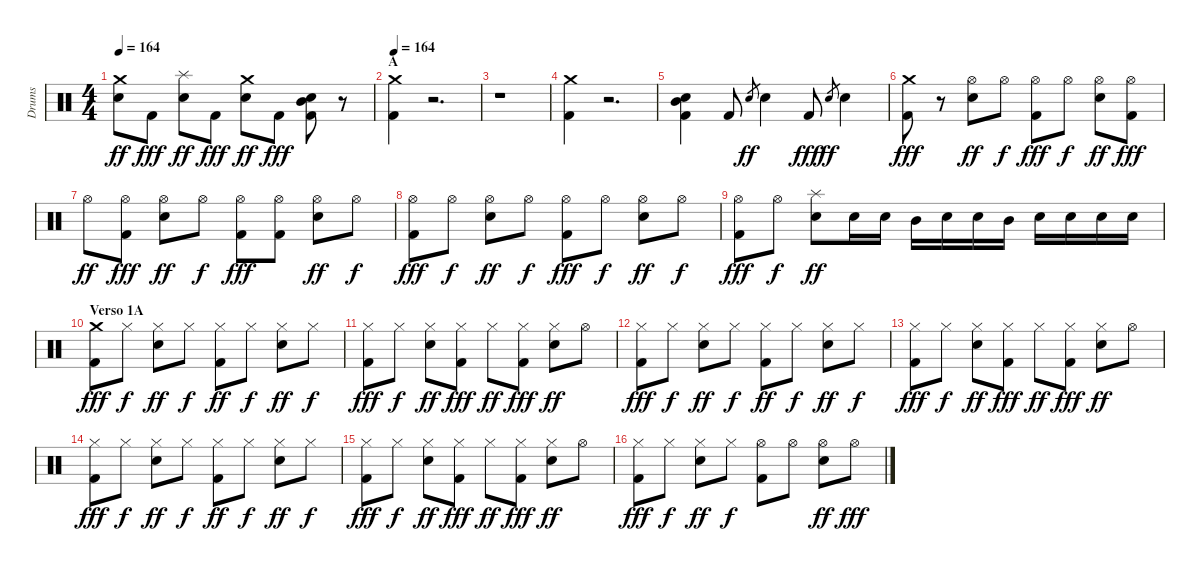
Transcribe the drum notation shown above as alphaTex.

\track ("Drums" "Drums") {instrument percussion}
\staff {score}
\articulation defaults
\ts (4 4)
\tempo 164
\clef neutral
\ks c
("Crash medium (hit)" "Snare (hit) 2").8{dy ff} "Kick (hit) 2".8{dy fff} ("Splash (hit)" "Snare (hit) 2").8{dy ff} "Kick (hit) 2".8{dy fff} ("Crash medium (hit)" "Snare (hit) 2").8{dy ff} "Kick (hit) 2".8{dy fff} ("Snare (hit) 2" "Mid Tom (hit)" "Kick (hit) 2").8 r.8 |
\section ("" "A")
\tempo 164
("Crash medium (hit)" "Kick (hit) 2").4 r.2{d} |
r.1 |
("Crash medium (hit)" "Kick (hit) 2").4 r.2{d} |
("Snare (hit) 2" "Mid Tom (hit)" "Kick (hit) 2").4 "Kick (hit) 2".8 "Snare (hit) 2".8{gr dy ff} "Snare (hit) 2".4 "Kick (hit) 2".8{dy fff} "Snare (hit) 2".8{gr dy ff} "Snare (hit) 2".4 |
("Crash medium (hit)" "Kick (hit) 2").8{dy fff} r.8 ("Hi-Hat (open)" "Snare (hit) 2").8{dy ff} "Hi-Hat (open)".8{dy f} ("Hi-Hat (open)" "Kick (hit) 2").8{dy fff} "Hi-Hat (open)".8{dy f} ("Hi-Hat (open)" "Snare (hit) 2").8{dy ff} ("Hi-Hat (open)" "Kick (hit) 2").8{dy fff} |
"Hi-Hat (open)".8{dy ff} ("Hi-Hat (open)" "Kick (hit) 2").8{dy fff} ("Hi-Hat (open)" "Snare (hit) 2").8{dy ff} "Hi-Hat (open)".8{dy f} ("Hi-Hat (open)" "Kick (hit) 2").8{dy fff} ("Hi-Hat (open)" "Kick (hit) 2").8 ("Hi-Hat (open)" "Snare (hit) 2").8{dy ff} "Hi-Hat (open)".8{dy f} |
("Hi-Hat (open)" "Kick (hit) 2").8{dy fff} "Hi-Hat (open)".8{dy f} ("Hi-Hat (open)" "Snare (hit) 2").8{dy ff} "Hi-Hat (open)".8{dy f} ("Hi-Hat (open)" "Kick (hit) 2").8{dy fff} "Hi-Hat (open)".8{dy f} ("Hi-Hat (open)" "Snare (hit) 2").8{dy ff} "Hi-Hat (open)".8{dy f} |
("Hi-Hat (open)" "Kick (hit) 2").8{dy fff} "Hi-Hat (open)".8{dy f} ("Splash (hit)" "Snare (hit) 2").8{dy ff} "Snare (hit) 2".16 "Snare (hit) 2".16 "Mid Tom (hit)".16 "Snare (hit) 2".16 "Snare (hit) 2".16 "Mid Tom (hit)".16 "Snare (hit) 2".16 "Snare (hit) 2".16 "Snare (hit) 2".16 "Snare (hit) 2".16 |
\section ("" "Verso 1A")
("Crash medium (hit)" "Kick (hit) 2").8{dy fff} "Hi-Hat (closed)".8{dy f} ("Hi-Hat (closed)" "Snare (hit) 2").8{dy ff} "Hi-Hat (closed)".8{dy f} ("Hi-Hat (closed)" "Kick (hit) 2").8{dy ff} "Hi-Hat (closed)".8{dy f} ("Hi-Hat (closed)" "Snare (hit) 2").8{dy ff} "Hi-Hat (closed)".8{dy f} |
("Hi-Hat (closed)" "Kick (hit) 2").8{dy fff} "Hi-Hat (closed)".8{dy f} ("Hi-Hat (closed)" "Snare (hit) 2").8{dy ff} ("Hi-Hat (closed)" "Kick (hit) 2").8{dy fff} "Hi-Hat (closed)".8{dy ff} ("Hi-Hat (closed)" "Kick (hit) 2").8{dy fff} ("Hi-Hat (closed)" "Snare (hit) 2").8{dy ff} "Hi-Hat (open)".8 |
("Hi-Hat (closed)" "Kick (hit) 2").8{dy fff} "Hi-Hat (closed)".8{dy f} ("Hi-Hat (closed)" "Snare (hit) 2").8{dy ff} "Hi-Hat (closed)".8{dy f} ("Hi-Hat (closed)" "Kick (hit) 2").8{dy ff} "Hi-Hat (closed)".8{dy f} ("Hi-Hat (closed)" "Snare (hit) 2").8{dy ff} "Hi-Hat (closed)".8{dy f} |
("Hi-Hat (closed)" "Kick (hit) 2").8{dy fff} "Hi-Hat (closed)".8{dy f} ("Hi-Hat (closed)" "Snare (hit) 2").8{dy ff} ("Hi-Hat (closed)" "Kick (hit) 2").8{dy fff} "Hi-Hat (closed)".8{dy ff} ("Hi-Hat (closed)" "Kick (hit) 2").8{dy fff} ("Hi-Hat (closed)" "Snare (hit) 2").8{dy ff} "Hi-Hat (open)".8 |
("Hi-Hat (closed)" "Kick (hit) 2").8{dy fff} "Hi-Hat (closed)".8{dy f} ("Hi-Hat (closed)" "Snare (hit) 2").8{dy ff} "Hi-Hat (closed)".8{dy f} ("Hi-Hat (closed)" "Kick (hit) 2").8{dy ff} "Hi-Hat (closed)".8{dy f} ("Hi-Hat (closed)" "Snare (hit) 2").8{dy ff} "Hi-Hat (closed)".8{dy f} |
("Hi-Hat (closed)" "Kick (hit) 2").8{dy fff} "Hi-Hat (closed)".8{dy f} ("Hi-Hat (closed)" "Snare (hit) 2").8{dy ff} ("Hi-Hat (closed)" "Kick (hit) 2").8{dy fff} "Hi-Hat (closed)".8{dy ff} ("Hi-Hat (closed)" "Kick (hit) 2").8{dy fff} ("Hi-Hat (closed)" "Snare (hit) 2").8{dy ff} "Hi-Hat (open)".8 |
("Hi-Hat (closed)" "Kick (hit) 2").8{dy fff} "Hi-Hat (closed)".8{dy f} ("Hi-Hat (closed)" "Snare (hit) 2").8{dy ff} "Hi-Hat (closed)".8{dy f} ("Hi-Hat (open)" "Kick (hit) 2").8 "Hi-Hat (open)".8 ("Hi-Hat (open)" "Snare (hit) 2").8{dy ff} "Hi-Hat (open)".8{dy fff}
